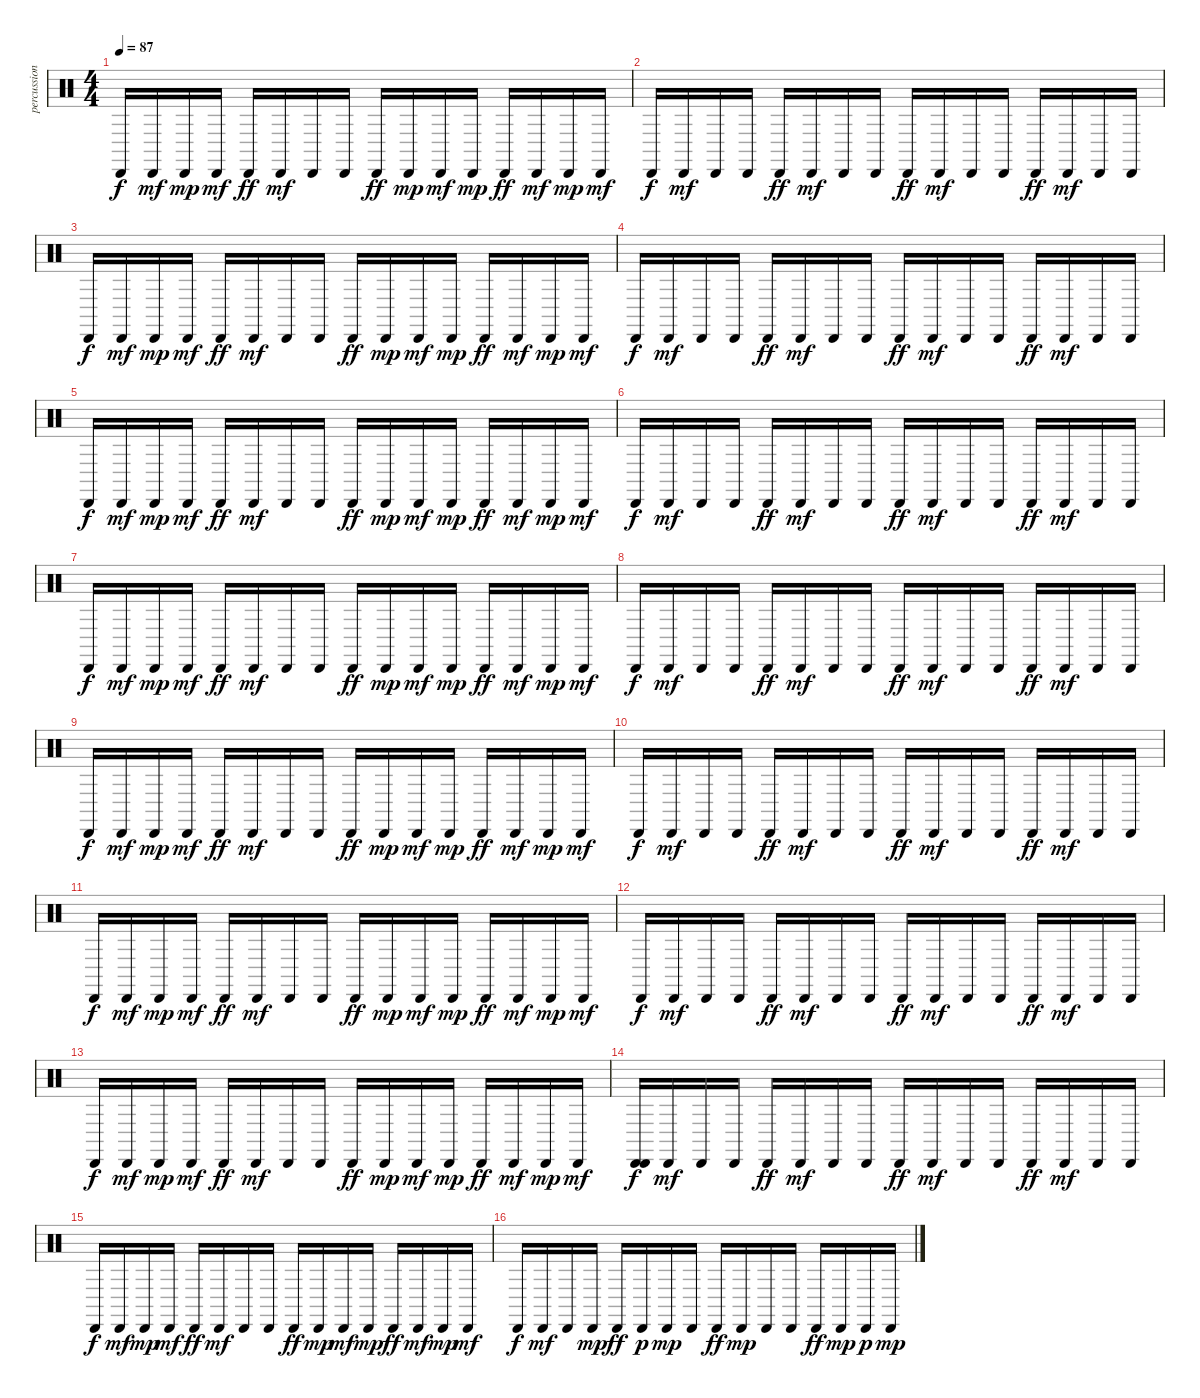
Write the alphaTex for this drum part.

\track ("percussion" "percussion") {instrument percussion}
\staff {score}
\articulation defaults
\ts (4 4)
\tempo 87
\clef neutral
\ks c "Cabasa (hit)".16{dy f} "Cabasa (hit)".16{dy mf} "Cabasa (hit)".16{dy mp} "Cabasa (hit)".16{dy mf} "Cabasa (hit)".16{dy ff} "Cabasa (hit)".16{dy mf} "Cabasa (hit)".16 "Cabasa (hit)".16 "Cabasa (hit)".16{dy ff} "Cabasa (hit)".16{dy mp} "Cabasa (hit)".16{dy mf} "Cabasa (hit)".16{dy mp} "Cabasa (hit)".16{dy ff} "Cabasa (hit)".16{dy mf} "Cabasa (hit)".16{dy mp} "Cabasa (hit)".16{dy mf}
|
"Cabasa (hit)".16{dy f} "Cabasa (hit)".16{dy mf} "Cabasa (hit)".16 "Cabasa (hit)".16 "Cabasa (hit)".16{dy ff} "Cabasa (hit)".16{dy mf} "Cabasa (hit)".16 "Cabasa (hit)".16 "Cabasa (hit)".16{dy ff} "Cabasa (hit)".16{dy mf} "Cabasa (hit)".16 "Cabasa (hit)".16 "Cabasa (hit)".16{dy ff} "Cabasa (hit)".16{dy mf} "Cabasa (hit)".16 "Cabasa (hit)".16 |
"Cabasa (hit)".16{dy f} "Cabasa (hit)".16{dy mf} "Cabasa (hit)".16{dy mp} "Cabasa (hit)".16{dy mf} "Cabasa (hit)".16{dy ff} "Cabasa (hit)".16{dy mf} "Cabasa (hit)".16 "Cabasa (hit)".16 "Cabasa (hit)".16{dy ff} "Cabasa (hit)".16{dy mp} "Cabasa (hit)".16{dy mf} "Cabasa (hit)".16{dy mp} "Cabasa (hit)".16{dy ff} "Cabasa (hit)".16{dy mf} "Cabasa (hit)".16{dy mp} "Cabasa (hit)".16{dy mf} |
"Cabasa (hit)".16{dy f} "Cabasa (hit)".16{dy mf} "Cabasa (hit)".16 "Cabasa (hit)".16 "Cabasa (hit)".16{dy ff} "Cabasa (hit)".16{dy mf} "Cabasa (hit)".16 "Cabasa (hit)".16 "Cabasa (hit)".16{dy ff} "Cabasa (hit)".16{dy mf} "Cabasa (hit)".16 "Cabasa (hit)".16 "Cabasa (hit)".16{dy ff} "Cabasa (hit)".16{dy mf} "Cabasa (hit)".16 "Cabasa (hit)".16 |
"Cabasa (hit)".16{dy f} "Cabasa (hit)".16{dy mf} "Cabasa (hit)".16{dy mp} "Cabasa (hit)".16{dy mf} "Cabasa (hit)".16{dy ff} "Cabasa (hit)".16{dy mf} "Cabasa (hit)".16 "Cabasa (hit)".16 "Cabasa (hit)".16{dy ff} "Cabasa (hit)".16{dy mp} "Cabasa (hit)".16{dy mf} "Cabasa (hit)".16{dy mp} "Cabasa (hit)".16{dy ff} "Cabasa (hit)".16{dy mf} "Cabasa (hit)".16{dy mp} "Cabasa (hit)".16{dy mf} |
"Cabasa (hit)".16{dy f} "Cabasa (hit)".16{dy mf} "Cabasa (hit)".16 "Cabasa (hit)".16 "Cabasa (hit)".16{dy ff} "Cabasa (hit)".16{dy mf} "Cabasa (hit)".16 "Cabasa (hit)".16 "Cabasa (hit)".16{dy ff} "Cabasa (hit)".16{dy mf} "Cabasa (hit)".16 "Cabasa (hit)".16 "Cabasa (hit)".16{dy ff} "Cabasa (hit)".16{dy mf} "Cabasa (hit)".16 "Cabasa (hit)".16 |
"Cabasa (hit)".16{dy f} "Cabasa (hit)".16{dy mf} "Cabasa (hit)".16{dy mp} "Cabasa (hit)".16{dy mf} "Cabasa (hit)".16{dy ff} "Cabasa (hit)".16{dy mf} "Cabasa (hit)".16 "Cabasa (hit)".16 "Cabasa (hit)".16{dy ff} "Cabasa (hit)".16{dy mp} "Cabasa (hit)".16{dy mf} "Cabasa (hit)".16{dy mp} "Cabasa (hit)".16{dy ff} "Cabasa (hit)".16{dy mf} "Cabasa (hit)".16{dy mp} "Cabasa (hit)".16{dy mf} |
"Cabasa (hit)".16{dy f} "Cabasa (hit)".16{dy mf} "Cabasa (hit)".16 "Cabasa (hit)".16 "Cabasa (hit)".16{dy ff} "Cabasa (hit)".16{dy mf} "Cabasa (hit)".16 "Cabasa (hit)".16 "Cabasa (hit)".16{dy ff} "Cabasa (hit)".16{dy mf} "Cabasa (hit)".16 "Cabasa (hit)".16 "Cabasa (hit)".16{dy ff} "Cabasa (hit)".16{dy mf} "Cabasa (hit)".16 "Cabasa (hit)".16 |
"Cabasa (hit)".16{dy f} "Cabasa (hit)".16{dy mf} "Cabasa (hit)".16{dy mp} "Cabasa (hit)".16{dy mf} "Cabasa (hit)".16{dy ff} "Cabasa (hit)".16{dy mf} "Cabasa (hit)".16 "Cabasa (hit)".16 "Cabasa (hit)".16{dy ff} "Cabasa (hit)".16{dy mp} "Cabasa (hit)".16{dy mf} "Cabasa (hit)".16{dy mp} "Cabasa (hit)".16{dy ff} "Cabasa (hit)".16{dy mf} "Cabasa (hit)".16{dy mp} "Cabasa (hit)".16{dy mf} |
"Cabasa (hit)".16{dy f} "Cabasa (hit)".16{dy mf} "Cabasa (hit)".16 "Cabasa (hit)".16 "Cabasa (hit)".16{dy ff} "Cabasa (hit)".16{dy mf} "Cabasa (hit)".16 "Cabasa (hit)".16 "Cabasa (hit)".16{dy ff} "Cabasa (hit)".16{dy mf} "Cabasa (hit)".16 "Cabasa (hit)".16 "Cabasa (hit)".16{dy ff} "Cabasa (hit)".16{dy mf} "Cabasa (hit)".16 "Cabasa (hit)".16 |
"Cabasa (hit)".16{dy f} "Cabasa (hit)".16{dy mf} "Cabasa (hit)".16{dy mp} "Cabasa (hit)".16{dy mf} "Cabasa (hit)".16{dy ff} "Cabasa (hit)".16{dy mf} "Cabasa (hit)".16 "Cabasa (hit)".16 "Cabasa (hit)".16{dy ff} "Cabasa (hit)".16{dy mp} "Cabasa (hit)".16{dy mf} "Cabasa (hit)".16{dy mp} "Cabasa (hit)".16{dy ff} "Cabasa (hit)".16{dy mf} "Cabasa (hit)".16{dy mp} "Cabasa (hit)".16{dy mf} |
"Cabasa (hit)".16{dy f} "Cabasa (hit)".16{dy mf} "Cabasa (hit)".16 "Cabasa (hit)".16 "Cabasa (hit)".16{dy ff} "Cabasa (hit)".16{dy mf} "Cabasa (hit)".16 "Cabasa (hit)".16 "Cabasa (hit)".16{dy ff} "Cabasa (hit)".16{dy mf} "Cabasa (hit)".16 "Cabasa (hit)".16 "Cabasa (hit)".16{dy ff} "Cabasa (hit)".16{dy mf} "Cabasa (hit)".16 "Cabasa (hit)".16 |
"Cabasa (hit)".16{dy f} "Cabasa (hit)".16{dy mf} "Cabasa (hit)".16{dy mp} "Cabasa (hit)".16{dy mf} "Cabasa (hit)".16{dy ff} "Cabasa (hit)".16{dy mf} "Cabasa (hit)".16 "Cabasa (hit)".16 "Cabasa (hit)".16{dy ff} "Cabasa (hit)".16{dy mp} "Cabasa (hit)".16{dy mf} "Cabasa (hit)".16{dy mp} "Cabasa (hit)".16{dy ff} "Cabasa (hit)".16{dy mf} "Cabasa (hit)".16{dy mp} "Cabasa (hit)".16{dy mf} |
("Cabasa (hit)" "Cabasa (hit)").16{dy f} "Cabasa (hit)".16{dy mf} "Cabasa (hit)".16 "Cabasa (hit)".16 "Cabasa (hit)".16{dy ff} "Cabasa (hit)".16{dy mf} "Cabasa (hit)".16 "Cabasa (hit)".16 "Cabasa (hit)".16{dy ff} "Cabasa (hit)".16{dy mf} "Cabasa (hit)".16 "Cabasa (hit)".16 "Cabasa (hit)".16{dy ff} "Cabasa (hit)".16{dy mf} "Cabasa (hit)".16 "Cabasa (hit)".16 |
"Cabasa (hit)".16{dy f} "Cabasa (hit)".16{dy mf} "Cabasa (hit)".16{dy mp} "Cabasa (hit)".16{dy mf} "Cabasa (hit)".16{dy ff} "Cabasa (hit)".16{dy mf} "Cabasa (hit)".16 "Cabasa (hit)".16 "Cabasa (hit)".16{dy ff} "Cabasa (hit)".16{dy mp} "Cabasa (hit)".16{dy mf} "Cabasa (hit)".16{dy mp} "Cabasa (hit)".16{dy ff} "Cabasa (hit)".16{dy mf} "Cabasa (hit)".16{dy mp} "Cabasa (hit)".16{dy mf} |
"Cabasa (hit)".16{dy f} "Cabasa (hit)".16{dy mf} "Cabasa (hit)".16 "Cabasa (hit)".16{dy mp} "Cabasa (hit)".16{dy ff} "Cabasa (hit)".16{dy p} "Cabasa (hit)".16{dy mp} "Cabasa (hit)".16 "Cabasa (hit)".16{dy ff} "Cabasa (hit)".16{dy mp} "Cabasa (hit)".16 "Cabasa (hit)".16 "Cabasa (hit)".16{dy ff} "Cabasa (hit)".16{dy mp} "Cabasa (hit)".16{dy p} "Cabasa (hit)".16{dy mp}
